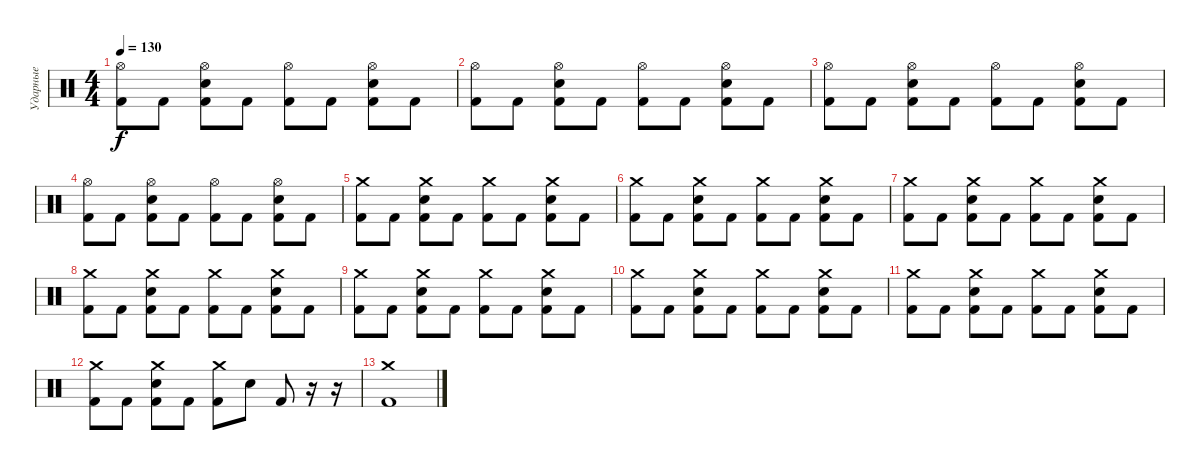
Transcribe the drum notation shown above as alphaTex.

\track ("Ударные" "Ударные") {instrument percussion}
\staff {score}
\articulation defaults
\ts (4 4)
\tempo 130
\clef neutral
\ks c
("Hi-Hat (open)" "Kick (hit) 2").8{dy f} "Kick (hit) 2".8 ("Hi-Hat (open)" "Kick (hit) 2" "Electric Snare (hit)").8 "Kick (hit) 2".8 ("Hi-Hat (open)" "Kick (hit) 2").8 "Kick (hit) 2".8 ("Hi-Hat (open)" "Kick (hit) 2" "Electric Snare (hit)").8 "Kick (hit) 2".8 |
("Hi-Hat (open)" "Kick (hit) 2").8 "Kick (hit) 2".8 ("Hi-Hat (open)" "Kick (hit) 2" "Electric Snare (hit)").8 "Kick (hit) 2".8 ("Hi-Hat (open)" "Kick (hit) 2").8 "Kick (hit) 2".8 ("Hi-Hat (open)" "Kick (hit) 2" "Electric Snare (hit)").8 "Kick (hit) 2".8 |
("Hi-Hat (open)" "Kick (hit) 2").8 "Kick (hit) 2".8 ("Hi-Hat (open)" "Kick (hit) 2" "Electric Snare (hit)").8 "Kick (hit) 2".8 ("Hi-Hat (open)" "Kick (hit) 2").8 "Kick (hit) 2".8 ("Hi-Hat (open)" "Kick (hit) 2" "Electric Snare (hit)").8 "Kick (hit) 2".8 |
("Hi-Hat (open)" "Kick (hit) 2").8 "Kick (hit) 2".8 ("Hi-Hat (open)" "Kick (hit) 2" "Electric Snare (hit)").8 "Kick (hit) 2".8 ("Hi-Hat (open)" "Kick (hit) 2").8 "Kick (hit) 2".8 ("Hi-Hat (open)" "Kick (hit) 2" "Electric Snare (hit)").8 "Kick (hit) 2".8 |
("Crash medium (hit)" "Kick (hit) 2").8 "Kick (hit) 2".8 ("Crash medium (hit)" "Kick (hit) 2" "Electric Snare (hit)").8 "Kick (hit) 2".8 ("Crash medium (hit)" "Kick (hit) 2").8 "Kick (hit) 2".8 ("Crash medium (hit)" "Kick (hit) 2" "Electric Snare (hit)").8 "Kick (hit) 2".8 |
("Crash medium (hit)" "Kick (hit) 2").8 "Kick (hit) 2".8 ("Crash medium (hit)" "Kick (hit) 2" "Electric Snare (hit)").8 "Kick (hit) 2".8 ("Crash medium (hit)" "Kick (hit) 2").8 "Kick (hit) 2".8 ("Crash medium (hit)" "Kick (hit) 2" "Electric Snare (hit)").8 "Kick (hit) 2".8 |
("Crash medium (hit)" "Kick (hit) 2").8 "Kick (hit) 2".8 ("Crash medium (hit)" "Kick (hit) 2" "Electric Snare (hit)").8 "Kick (hit) 2".8 ("Crash medium (hit)" "Kick (hit) 2").8 "Kick (hit) 2".8 ("Crash medium (hit)" "Kick (hit) 2" "Electric Snare (hit)").8 "Kick (hit) 2".8 |
("Crash medium (hit)" "Kick (hit) 2").8 "Kick (hit) 2".8 ("Crash medium (hit)" "Kick (hit) 2" "Electric Snare (hit)").8 "Kick (hit) 2".8 ("Crash medium (hit)" "Kick (hit) 2").8 "Kick (hit) 2".8 ("Crash medium (hit)" "Kick (hit) 2" "Electric Snare (hit)").8 "Kick (hit) 2".8 |
("Crash medium (hit)" "Kick (hit) 2").8 "Kick (hit) 2".8 ("Crash medium (hit)" "Kick (hit) 2" "Electric Snare (hit)").8 "Kick (hit) 2".8 ("Crash medium (hit)" "Kick (hit) 2").8 "Kick (hit) 2".8 ("Crash medium (hit)" "Kick (hit) 2" "Electric Snare (hit)").8 "Kick (hit) 2".8 |
("Crash medium (hit)" "Kick (hit) 2").8 "Kick (hit) 2".8 ("Crash medium (hit)" "Kick (hit) 2" "Electric Snare (hit)").8 "Kick (hit) 2".8 ("Crash medium (hit)" "Kick (hit) 2").8 "Kick (hit) 2".8 ("Crash medium (hit)" "Kick (hit) 2" "Electric Snare (hit)").8 "Kick (hit) 2".8 |
("Crash medium (hit)" "Kick (hit) 2").8 "Kick (hit) 2".8 ("Crash medium (hit)" "Kick (hit) 2" "Electric Snare (hit)").8 "Kick (hit) 2".8 ("Crash medium (hit)" "Kick (hit) 2").8 "Kick (hit) 2".8 ("Crash medium (hit)" "Kick (hit) 2" "Electric Snare (hit)").8 "Kick (hit) 2".8 |
("Crash medium (hit)" "Kick (hit) 2").8 "Kick (hit) 2".8 ("Crash medium (hit)" "Kick (hit) 2" "Electric Snare (hit)").8 "Kick (hit) 2".8 ("Crash medium (hit)" "Kick (hit) 2").8 "Electric Snare (hit)".8 "Kick (hit) 2".8 r.16 r.16 |
("Crash medium (hit)" "Kick (hit) 2").1
